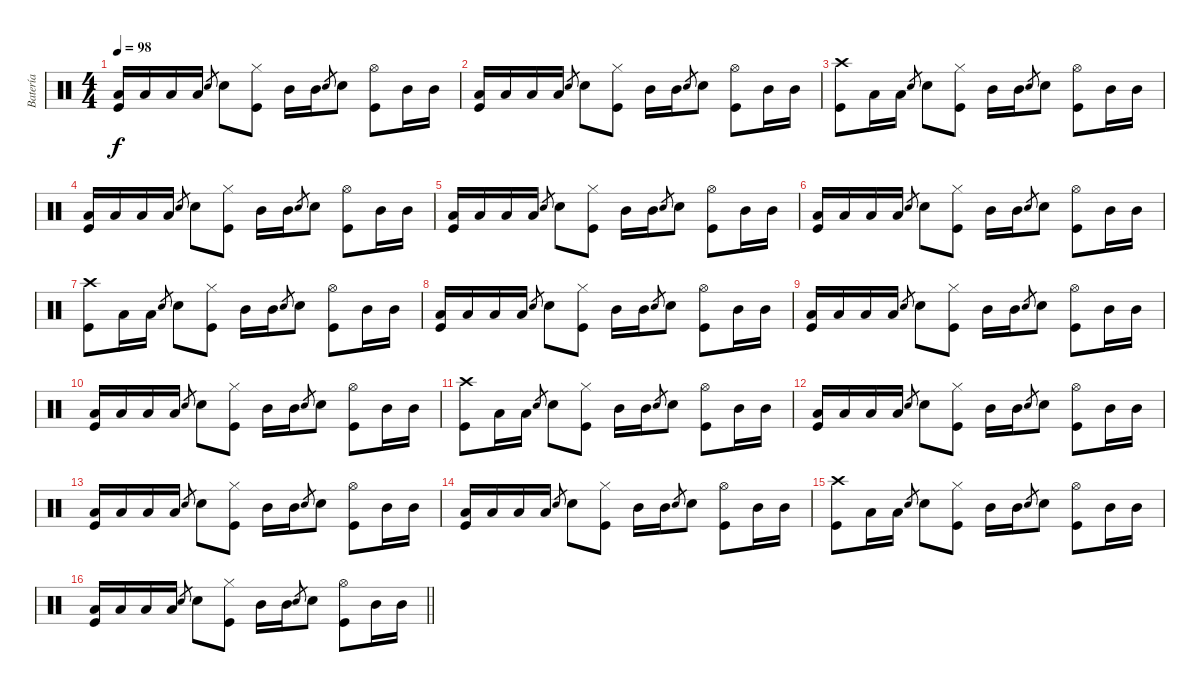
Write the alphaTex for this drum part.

\track ("Batería" "Batería") {instrument percussion}
\staff {score}
\articulation defaults
\ts (4 4)
\tempo 98
\clef neutral
\ks c
("Low Tom (hit)" "Kick (hit)").16{dy f} "Low Tom (hit)".16 "Low Floor Tom (hit)".16 "Low Floor Tom (hit)".16 "Snare (hit) 2".8{gr} "Snare (hit) 2".8 ("Hi-Hat (closed)" "Kick (hit)").8 "Mid Tom (hit)".16 "Mid Tom (hit)".16 "Snare (hit) 2".8{gr} "Snare (hit) 2".8 ("Hi-Hat (open)" "Kick (hit)").8 "Mid Tom (hit)".16 "Mid Tom (hit)".16 |
("Low Tom (hit)" "Kick (hit)").16 "Low Tom (hit)".16 "Low Floor Tom (hit)".16 "Low Floor Tom (hit)".16 "Snare (hit) 2".8{gr} "Snare (hit) 2".8 ("Hi-Hat (closed)" "Kick (hit)").8 "Mid Tom (hit)".16 "Mid Tom (hit)".16 "Snare (hit) 2".8{gr} "Snare (hit) 2".8 ("Hi-Hat (open)" "Kick (hit)").8 "Mid Tom (hit)".16 "Mid Tom (hit)".16 |
("Crash high (hit)" "Kick (hit)").8 "Low Tom (hit)".16 "Low Tom (hit)".16 "Snare (hit) 2".8{gr} "Snare (hit) 2".8 ("Hi-Hat (closed)" "Kick (hit)").8 "Mid Tom (hit)".16 "Mid Tom (hit)".16 "Snare (hit) 2".8{gr} "Snare (hit) 2".8 ("Hi-Hat (open)" "Kick (hit)").8 "Mid Tom (hit)".16 "Mid Tom (hit)".16 |
("Low Tom (hit)" "Kick (hit)").16 "Low Tom (hit)".16 "Low Floor Tom (hit)".16 "Low Floor Tom (hit)".16 "Snare (hit) 2".8{gr} "Snare (hit) 2".8 ("Hi-Hat (closed)" "Kick (hit)").8 "Mid Tom (hit)".16 "Mid Tom (hit)".16 "Snare (hit) 2".8{gr} "Snare (hit) 2".8 ("Hi-Hat (open)" "Kick (hit)").8 "Mid Tom (hit)".16 "Mid Tom (hit)".16 |
("Low Tom (hit)" "Kick (hit)").16 "Low Tom (hit)".16 "Low Floor Tom (hit)".16 "Low Floor Tom (hit)".16 "Snare (hit) 2".8{gr} "Snare (hit) 2".8 ("Hi-Hat (closed)" "Kick (hit)").8 "Mid Tom (hit)".16 "Mid Tom (hit)".16 "Snare (hit) 2".8{gr} "Snare (hit) 2".8 ("Hi-Hat (open)" "Kick (hit)").8 "Mid Tom (hit)".16 "Mid Tom (hit)".16 |
("Low Tom (hit)" "Kick (hit)").16 "Low Tom (hit)".16 "Low Floor Tom (hit)".16 "Low Floor Tom (hit)".16 "Snare (hit) 2".8{gr} "Snare (hit) 2".8 ("Hi-Hat (closed)" "Kick (hit)").8 "Mid Tom (hit)".16 "Mid Tom (hit)".16 "Snare (hit) 2".8{gr} "Snare (hit) 2".8 ("Hi-Hat (open)" "Kick (hit)").8 "Mid Tom (hit)".16 "Mid Tom (hit)".16 |
("Crash high (hit)" "Kick (hit)").8 "Low Tom (hit)".16 "Low Tom (hit)".16 "Snare (hit) 2".8{gr} "Snare (hit) 2".8 ("Hi-Hat (closed)" "Kick (hit)").8 "Mid Tom (hit)".16 "Mid Tom (hit)".16 "Snare (hit) 2".8{gr} "Snare (hit) 2".8 ("Hi-Hat (open)" "Kick (hit)").8 "Mid Tom (hit)".16 "Mid Tom (hit)".16 |
("Low Tom (hit)" "Kick (hit)").16 "Low Tom (hit)".16 "Low Floor Tom (hit)".16 "Low Floor Tom (hit)".16 "Snare (hit) 2".8{gr} "Snare (hit) 2".8 ("Hi-Hat (closed)" "Kick (hit)").8 "Mid Tom (hit)".16 "Mid Tom (hit)".16 "Snare (hit) 2".8{gr} "Snare (hit) 2".8 ("Hi-Hat (open)" "Kick (hit)").8 "Mid Tom (hit)".16 "Mid Tom (hit)".16 |
("Low Tom (hit)" "Kick (hit)").16 "Low Tom (hit)".16 "Low Floor Tom (hit)".16 "Low Floor Tom (hit)".16 "Snare (hit) 2".8{gr} "Snare (hit) 2".8 ("Hi-Hat (closed)" "Kick (hit)").8 "Mid Tom (hit)".16 "Mid Tom (hit)".16 "Snare (hit) 2".8{gr} "Snare (hit) 2".8 ("Hi-Hat (open)" "Kick (hit)").8 "Mid Tom (hit)".16 "Mid Tom (hit)".16 |
("Low Tom (hit)" "Kick (hit)").16 "Low Tom (hit)".16 "Low Floor Tom (hit)".16 "Low Floor Tom (hit)".16 "Snare (hit) 2".8{gr} "Snare (hit) 2".8 ("Hi-Hat (closed)" "Kick (hit)").8 "Mid Tom (hit)".16 "Mid Tom (hit)".16 "Snare (hit) 2".8{gr} "Snare (hit) 2".8 ("Hi-Hat (open)" "Kick (hit)").8 "Mid Tom (hit)".16 "Mid Tom (hit)".16 |
("Crash high (hit)" "Kick (hit)").8 "Low Tom (hit)".16 "Low Tom (hit)".16 "Snare (hit) 2".8{gr} "Snare (hit) 2".8 ("Hi-Hat (closed)" "Kick (hit)").8 "Mid Tom (hit)".16 "Mid Tom (hit)".16 "Snare (hit) 2".8{gr} "Snare (hit) 2".8 ("Hi-Hat (open)" "Kick (hit)").8 "Mid Tom (hit)".16 "Mid Tom (hit)".16 |
("Low Tom (hit)" "Kick (hit)").16 "Low Tom (hit)".16 "Low Floor Tom (hit)".16 "Low Floor Tom (hit)".16 "Snare (hit) 2".8{gr} "Snare (hit) 2".8 ("Hi-Hat (closed)" "Kick (hit)").8 "Mid Tom (hit)".16 "Mid Tom (hit)".16 "Snare (hit) 2".8{gr} "Snare (hit) 2".8 ("Hi-Hat (open)" "Kick (hit)").8 "Mid Tom (hit)".16 "Mid Tom (hit)".16 |
("Low Tom (hit)" "Kick (hit)").16 "Low Tom (hit)".16 "Low Floor Tom (hit)".16 "Low Floor Tom (hit)".16 "Snare (hit) 2".8{gr} "Snare (hit) 2".8 ("Hi-Hat (closed)" "Kick (hit)").8 "Mid Tom (hit)".16 "Mid Tom (hit)".16 "Snare (hit) 2".8{gr} "Snare (hit) 2".8 ("Hi-Hat (open)" "Kick (hit)").8 "Mid Tom (hit)".16 "Mid Tom (hit)".16 |
("Low Tom (hit)" "Kick (hit)").16 "Low Tom (hit)".16 "Low Floor Tom (hit)".16 "Low Floor Tom (hit)".16 "Snare (hit) 2".8{gr} "Snare (hit) 2".8 ("Hi-Hat (closed)" "Kick (hit)").8 "Mid Tom (hit)".16 "Mid Tom (hit)".16 "Snare (hit) 2".8{gr} "Snare (hit) 2".8 ("Hi-Hat (open)" "Kick (hit)").8 "Mid Tom (hit)".16 "Mid Tom (hit)".16 |
("Crash high (hit)" "Kick (hit)").8 "Low Tom (hit)".16 "Low Tom (hit)".16 "Snare (hit) 2".8{gr} "Snare (hit) 2".8 ("Hi-Hat (closed)" "Kick (hit)").8 "Mid Tom (hit)".16 "Mid Tom (hit)".16 "Snare (hit) 2".8{gr} "Snare (hit) 2".8 ("Hi-Hat (open)" "Kick (hit)").8 "Mid Tom (hit)".16 "Mid Tom (hit)".16 |
\barLineRight lightlight
("Low Tom (hit)" "Kick (hit)").16 "Low Tom (hit)".16 "Low Floor Tom (hit)".16 "Low Floor Tom (hit)".16 "Snare (hit) 2".8{gr} "Snare (hit) 2".8 ("Hi-Hat (closed)" "Kick (hit)").8 "Mid Tom (hit)".16 "Mid Tom (hit)".16 "Snare (hit) 2".8{gr} "Snare (hit) 2".8 ("Hi-Hat (open)" "Kick (hit)").8 "Mid Tom (hit)".16 "Mid Tom (hit)".16
